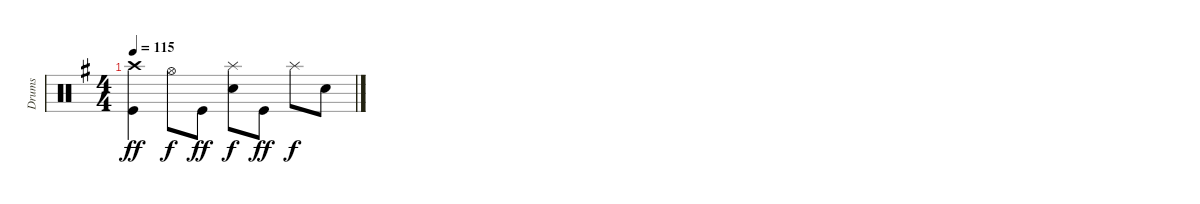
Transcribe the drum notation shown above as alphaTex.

\track ("Drums" "Drums") {instrument percussion}
\staff {score}
\articulation defaults
\ts (4 4)
\tempo 115
\clef neutral
\ks g
("Crash high (hit)" "Kick (hit)").4{dy ff} "Hi-Hat (open)".8{dy f} "Kick (hit)".8{dy ff} ("Splash (hit)" "Electric Snare (hit)").8{dy f} "Kick (hit)".8{dy ff} "Splash (hit)".8{dy f} "Electric Snare (hit)".8
